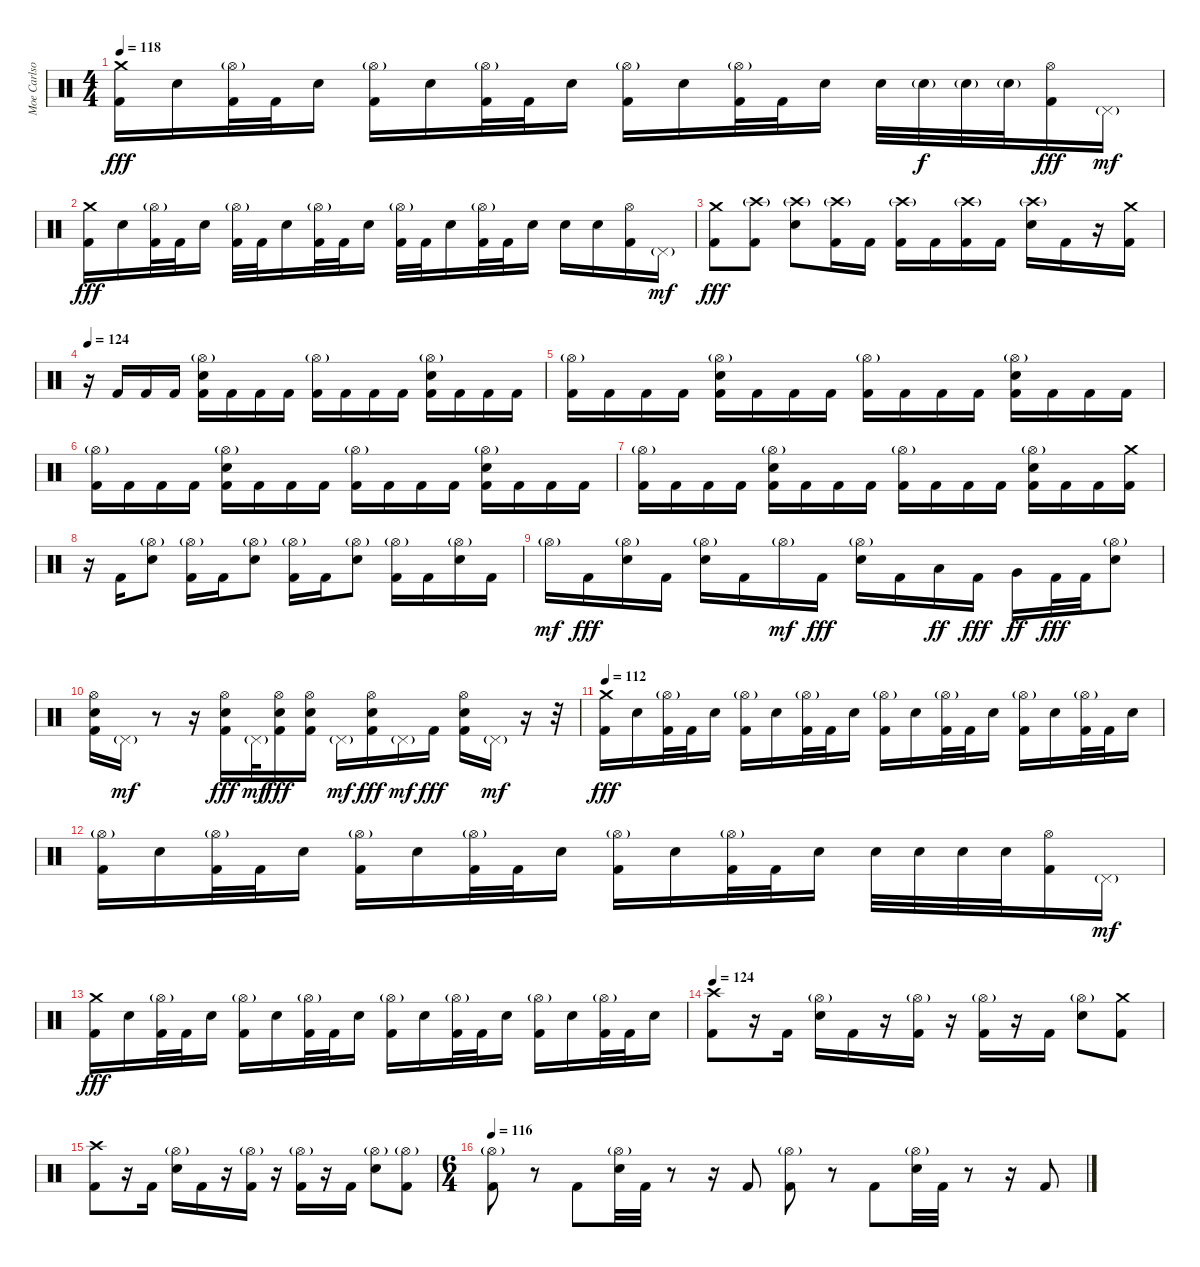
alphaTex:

\track ("Moe Carlson" "Moe Carlso") {instrument percussion}
\staff {score}
\articulation defaults
\ts (4 4)
\tempo 118
\clef neutral
\ks c
("Crash medium (hit)" "Kick (hit) 2").16{dy fff} "Electric Snare (hit)".16 ("Hi-Hat (open)"{g} "Kick (hit) 2").32 "Kick (hit) 2".32 "Electric Snare (hit)".16 ("Hi-Hat (open)"{g} "Kick (hit) 2").16 "Electric Snare (hit)".16 ("Hi-Hat (open)"{g} "Kick (hit) 2").32 "Kick (hit) 2".32 "Electric Snare (hit)".16 ("Hi-Hat (open)"{g} "Kick (hit) 2").16 "Electric Snare (hit)".16 ("Hi-Hat (open)"{g} "Kick (hit) 2").32 "Kick (hit) 2".32 "Electric Snare (hit)".16 "Electric Snare (hit)".32 "Electric Snare (hit)"{g}.32{dy f} "Electric Snare (hit)"{g}.32 "Electric Snare (hit)"{g}.32 ("Hi-Hat (open)" "Kick (hit) 2").16{dy fff} "Pedal Hi-Hat (hit)"{g}.16{dy mf} |
("Crash medium (hit)" "Kick (hit) 2").16{dy fff} "Electric Snare (hit)".16 ("Hi-Hat (open)"{g} "Kick (hit) 2").32 "Kick (hit) 2".32 "Electric Snare (hit)".16 ("Hi-Hat (open)"{g} "Kick (hit) 2").32 "Kick (hit) 2".32 "Electric Snare (hit)".16 ("Hi-Hat (open)"{g} "Kick (hit) 2").32 "Kick (hit) 2".32 "Electric Snare (hit)".16 ("Hi-Hat (open)"{g} "Kick (hit) 2").32 "Kick (hit) 2".32 "Electric Snare (hit)".16 ("Hi-Hat (open)"{g} "Kick (hit) 2").32 "Kick (hit) 2".32 "Electric Snare (hit)".16 "Electric Snare (hit)".16 "Electric Snare (hit)".16 ("Hi-Hat (open)" "Kick (hit) 2").16 "Pedal Hi-Hat (hit)"{g}.16{dy mf} |
("Crash medium (hit)" "Kick (hit) 2").8{dy fff} ("Crash high (hit)"{g} "Kick (hit) 2").8 ("Crash high (hit)"{g} "Electric Snare (hit)").8 ("Crash high (hit)"{g} "Kick (hit) 2").16 "Kick (hit) 2".16 ("Crash high (hit)"{g} "Kick (hit) 2").16 "Kick (hit) 2".16 ("Crash high (hit)"{g} "Kick (hit) 2").16 "Kick (hit) 2".16 ("Crash high (hit)"{g} "Electric Snare (hit)").16 "Kick (hit) 2".16 r.16 ("Crash medium (hit)" "Kick (hit) 2").16 |
\tempo 124
r.16 "Kick (hit) 2".16 "Kick (hit) 2".16 "Kick (hit) 2".16 ("Hi-Hat (open)"{g} "Electric Snare (hit)" "Kick (hit) 2").16 "Kick (hit) 2".16 "Kick (hit) 2".16 "Kick (hit) 2".16 ("Hi-Hat (open)"{g} "Kick (hit) 2").16 "Kick (hit) 2".16 "Kick (hit) 2".16 "Kick (hit) 2".16 ("Hi-Hat (open)"{g} "Electric Snare (hit)" "Kick (hit) 2").16 "Kick (hit) 2".16 "Kick (hit) 2".16 "Kick (hit) 2".16 |
("Hi-Hat (open)"{g} "Kick (hit) 2").16 "Kick (hit) 2".16 "Kick (hit) 2".16 "Kick (hit) 2".16 ("Hi-Hat (open)"{g} "Electric Snare (hit)" "Kick (hit) 2").16 "Kick (hit) 2".16 "Kick (hit) 2".16 "Kick (hit) 2".16 ("Hi-Hat (open)"{g} "Kick (hit) 2").16 "Kick (hit) 2".16 "Kick (hit) 2".16 "Kick (hit) 2".16 ("Hi-Hat (open)"{g} "Electric Snare (hit)" "Kick (hit) 2").16 "Kick (hit) 2".16 "Kick (hit) 2".16 "Kick (hit) 2".16 |
("Hi-Hat (open)"{g} "Kick (hit) 2").16 "Kick (hit) 2".16 "Kick (hit) 2".16 "Kick (hit) 2".16 ("Hi-Hat (open)"{g} "Electric Snare (hit)" "Kick (hit) 2").16 "Kick (hit) 2".16 "Kick (hit) 2".16 "Kick (hit) 2".16 ("Hi-Hat (open)"{g} "Kick (hit) 2").16 "Kick (hit) 2".16 "Kick (hit) 2".16 "Kick (hit) 2".16 ("Hi-Hat (open)"{g} "Electric Snare (hit)" "Kick (hit) 2").16 "Kick (hit) 2".16 "Kick (hit) 2".16 "Kick (hit) 2".16 |
("Hi-Hat (open)"{g} "Kick (hit) 2").16 "Kick (hit) 2".16 "Kick (hit) 2".16 "Kick (hit) 2".16 ("Hi-Hat (open)"{g} "Electric Snare (hit)" "Kick (hit) 2").16 "Kick (hit) 2".16 "Kick (hit) 2".16 "Kick (hit) 2".16 ("Hi-Hat (open)"{g} "Kick (hit) 2").16 "Kick (hit) 2".16 "Kick (hit) 2".16 "Kick (hit) 2".16 ("Hi-Hat (open)"{g} "Electric Snare (hit)" "Kick (hit) 2").16 "Kick (hit) 2".16 "Kick (hit) 2".16 ("Crash medium (hit)" "Kick (hit) 2").16 |
r.16 "Kick (hit) 2".16 ("Hi-Hat (open)"{g} "Electric Snare (hit)").8 ("Hi-Hat (open)"{g} "Kick (hit) 2").16 "Kick (hit) 2".16 ("Hi-Hat (open)"{g} "Electric Snare (hit)").8 ("Hi-Hat (open)"{g} "Kick (hit) 2").16 "Kick (hit) 2".16 ("Hi-Hat (open)"{g} "Electric Snare (hit)").8 ("Hi-Hat (open)"{g} "Kick (hit) 2").16 "Kick (hit) 2".16 ("Hi-Hat (open)"{g} "Electric Snare (hit)").16 "Kick (hit) 2".16 |
"Hi-Hat (open)"{g}.16{dy mf} "Kick (hit) 2".16{dy fff} ("Hi-Hat (open)"{g} "Electric Snare (hit)").16 "Kick (hit) 2".16 ("Hi-Hat (open)"{g} "Electric Snare (hit)").16 "Kick (hit) 2".16 "Hi-Hat (open)"{g}.16{dy mf} "Kick (hit) 2".16{dy fff} ("Hi-Hat (open)"{g} "Electric Snare (hit)").16 "Kick (hit) 2".16 "Low Tom (hit)".16{dy ff} "Kick (hit) 2".16{dy fff} "Very Low Tom (hit)".16{dy ff} "Kick (hit) 2".32{dy fff} "Kick (hit) 2".32 ("Hi-Hat (open)"{g} "Electric Snare (hit)").8 |
("Hi-Hat (open)" "Electric Snare (hit)" "Kick (hit) 2").16 "Pedal Hi-Hat (hit)"{g}.16{dy mf} r.8 r.16 ("Hi-Hat (open)" "Electric Snare (hit)" "Kick (hit) 2").16{dy fff} "Pedal Hi-Hat (hit)"{g}.32{dy mf} ("Hi-Hat (open)" "Electric Snare (hit)" "Kick (hit) 2").16{dy fff} ("Hi-Hat (open)" "Electric Snare (hit)" "Kick (hit) 2").16 "Pedal Hi-Hat (hit)"{g}.16{dy mf} ("Hi-Hat (open)" "Electric Snare (hit)" "Kick (hit) 2").16{dy fff} "Pedal Hi-Hat (hit)"{g}.16{dy mf} "Kick (hit) 2".16{dy fff} ("Hi-Hat (open)" "Electric Snare (hit)" "Kick (hit) 2").16 "Pedal Hi-Hat (hit)"{g}.16{dy mf} r.16 r.32 |
\tempo 112
("Crash medium (hit)" "Kick (hit) 2").16{dy fff} "Electric Snare (hit)".16 ("Hi-Hat (open)"{g} "Kick (hit) 2").32 "Kick (hit) 2".32 "Electric Snare (hit)".16 ("Hi-Hat (open)"{g} "Kick (hit) 2").16 "Electric Snare (hit)".16 ("Hi-Hat (open)"{g} "Kick (hit) 2").32 "Kick (hit) 2".32 "Electric Snare (hit)".16 ("Hi-Hat (open)"{g} "Kick (hit) 2").16 "Electric Snare (hit)".16 ("Hi-Hat (open)"{g} "Kick (hit) 2").32 "Kick (hit) 2".32 "Electric Snare (hit)".16 ("Hi-Hat (open)"{g} "Kick (hit) 2").16 "Electric Snare (hit)".16 ("Hi-Hat (open)"{g} "Kick (hit) 2").32 "Kick (hit) 2".32 "Electric Snare (hit)".16 |
("Hi-Hat (open)"{g} "Kick (hit) 2").16 "Electric Snare (hit)".16 ("Hi-Hat (open)"{g} "Kick (hit) 2").32 "Kick (hit) 2".32 "Electric Snare (hit)".16 ("Hi-Hat (open)"{g} "Kick (hit) 2").16 "Electric Snare (hit)".16 ("Hi-Hat (open)"{g} "Kick (hit) 2").32 "Kick (hit) 2".32 "Electric Snare (hit)".16 ("Hi-Hat (open)"{g} "Kick (hit) 2").16 "Electric Snare (hit)".16 ("Hi-Hat (open)"{g} "Kick (hit) 2").32 "Kick (hit) 2".32 "Electric Snare (hit)".16 "Electric Snare (hit)".32 "Electric Snare (hit)".32 "Electric Snare (hit)".32 "Electric Snare (hit)".32 ("Hi-Hat (open)" "Kick (hit) 2").16 "Pedal Hi-Hat (hit)"{g}.16{dy mf} |
("Crash medium (hit)" "Kick (hit) 2").16{dy fff} "Electric Snare (hit)".16 ("Hi-Hat (open)"{g} "Kick (hit) 2").32 "Kick (hit) 2".32 "Electric Snare (hit)".16 ("Hi-Hat (open)"{g} "Kick (hit) 2").16 "Electric Snare (hit)".16 ("Hi-Hat (open)"{g} "Kick (hit) 2").32 "Kick (hit) 2".32 "Electric Snare (hit)".16 ("Hi-Hat (open)"{g} "Kick (hit) 2").16 "Electric Snare (hit)".16 ("Hi-Hat (open)"{g} "Kick (hit) 2").32 "Kick (hit) 2".32 "Electric Snare (hit)".16 ("Hi-Hat (open)"{g} "Kick (hit) 2").16 "Electric Snare (hit)".16 ("Hi-Hat (open)"{g} "Kick (hit) 2").32 "Kick (hit) 2".32 "Electric Snare (hit)".16 |
\tempo 124
("Crash high (hit)" "Kick (hit) 2").8 r.16 "Kick (hit) 2".16 ("Hi-Hat (open)"{g} "Electric Snare (hit)").16 "Kick (hit) 2".16 r.16 ("Hi-Hat (open)"{g} "Kick (hit) 2").16 r.16 ("Hi-Hat (open)"{g} "Kick (hit) 2").16 r.16 "Kick (hit) 2".16 ("Hi-Hat (open)"{g} "Electric Snare (hit)").8 ("Crash medium (hit)" "Kick (hit) 2").8 |
("Crash high (hit)" "Kick (hit) 2").8 r.16 "Kick (hit) 2".16 ("Hi-Hat (open)"{g} "Electric Snare (hit)").16 "Kick (hit) 2".16 r.16 ("Hi-Hat (open)"{g} "Kick (hit) 2").16 r.16 ("Hi-Hat (open)"{g} "Kick (hit) 2").16 r.16 "Kick (hit) 2".16 ("Hi-Hat (open)"{g} "Electric Snare (hit)").8 ("Hi-Hat (open)"{g} "Kick (hit) 2").8 |
\ts (6 4)
\tempo 116
("Hi-Hat (open)"{g} "Kick (hit) 2").8 r.8 "Kick (hit) 2".8 ("Hi-Hat (open)"{g} "Electric Snare (hit)").32 "Kick (hit) 2".32 r.8 r.16 "Kick (hit) 2".8 ("Hi-Hat (open)"{g} "Kick (hit) 2").8 r.8 "Kick (hit) 2".8 ("Hi-Hat (open)"{g} "Electric Snare (hit)").32 "Kick (hit) 2".32 r.8 r.16 "Kick (hit) 2".8
